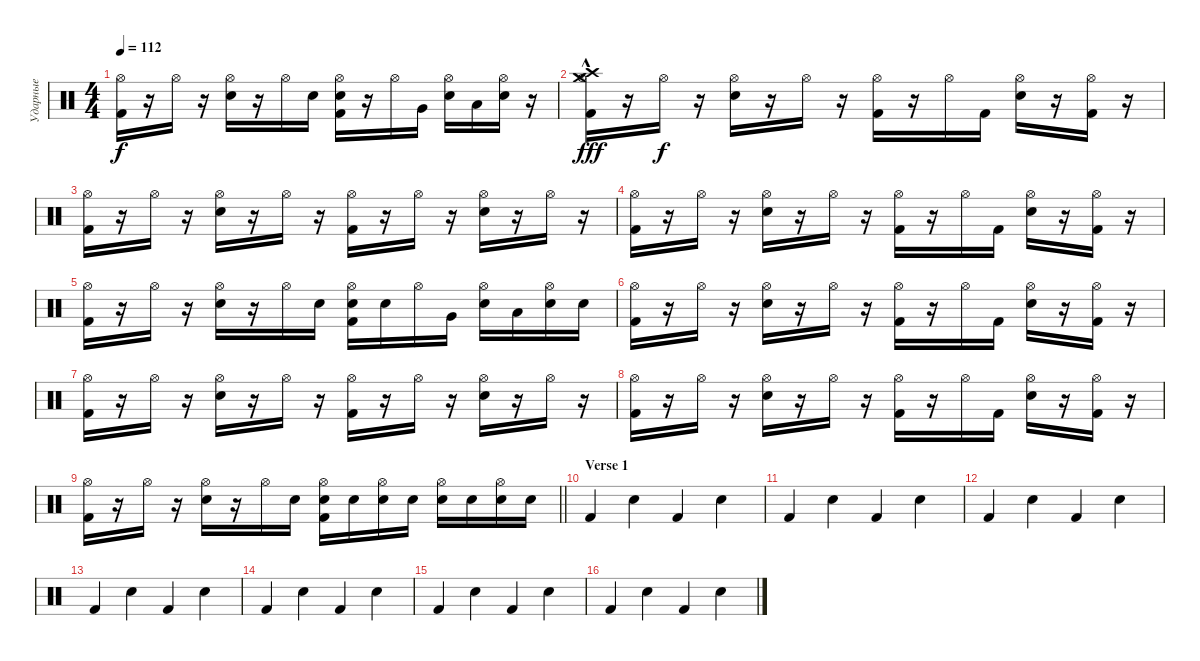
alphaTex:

\track ("Ударные" "Ударные") {instrument percussion}
\staff {score}
\articulation defaults
\ts (4 4)
\tempo 112
\clef neutral
\ks c
("Hi-Hat (open)" "Kick (hit) 2").16{dy f} r.16 "Hi-Hat (open)".16 r.16 ("Hi-Hat (open)" "Snare (hit) 2").16 r.16 "Hi-Hat (open)".16 "Snare (hit) 2".16 ("Hi-Hat (open)" "Electric Snare (hit)" "Kick (hit) 2").16 r.16 "Hi-Hat (open)".16 "Very Low Tom (hit)".16 ("Hi-Hat (open)" "Snare (hit) 2").16 "Low Floor Tom (hit)".16 ("Hi-Hat (open)" "Electric Snare (hit)").16 r.16 |
("Crash high (hit)"{hac} "Crash medium (hit)"{hac} "Hi-Hat (open)" "Kick (hit) 2").16{dy fff} r.16 "Hi-Hat (open)".16{dy f} r.16 ("Hi-Hat (open)" "Snare (hit) 2").16 r.16 "Hi-Hat (open)".16 r.16 ("Hi-Hat (open)" "Kick (hit) 2").16 r.16 "Hi-Hat (open)".16 "Kick (hit) 2".16 ("Hi-Hat (open)" "Snare (hit) 2").16 r.16 ("Hi-Hat (open)" "Kick (hit) 2").16 r.16 |
("Hi-Hat (open)" "Kick (hit) 2").16 r.16 "Hi-Hat (open)".16 r.16 ("Hi-Hat (open)" "Snare (hit) 2").16 r.16 "Hi-Hat (open)".16 r.16 ("Hi-Hat (open)" "Kick (hit) 2").16 r.16 "Hi-Hat (open)".16 r.16 ("Hi-Hat (open)" "Snare (hit) 2").16 r.16 "Hi-Hat (open)".16 r.16 |
("Hi-Hat (open)" "Kick (hit) 2").16 r.16 "Hi-Hat (open)".16 r.16 ("Hi-Hat (open)" "Snare (hit) 2").16 r.16 "Hi-Hat (open)".16 r.16 ("Hi-Hat (open)" "Kick (hit) 2").16 r.16 "Hi-Hat (open)".16 "Kick (hit) 2".16 ("Hi-Hat (open)" "Snare (hit) 2").16 r.16 ("Hi-Hat (open)" "Kick (hit) 2").16 r.16 |
("Hi-Hat (open)" "Kick (hit) 2").16 r.16 "Hi-Hat (open)".16 r.16 ("Hi-Hat (open)" "Snare (hit) 2").16 r.16 "Hi-Hat (open)".16 "Snare (hit) 2".16 ("Hi-Hat (open)" "Electric Snare (hit)" "Kick (hit) 2").16 "Snare (hit) 2".16 "Hi-Hat (open)".16 "Very Low Tom (hit)".16 ("Hi-Hat (open)" "Snare (hit) 2").16 "Low Floor Tom (hit)".16 ("Hi-Hat (open)" "Electric Snare (hit)").16 "Snare (hit) 2".16 |
("Hi-Hat (open)" "Kick (hit) 2").16 r.16 "Hi-Hat (open)".16 r.16 ("Hi-Hat (open)" "Snare (hit) 2").16 r.16 "Hi-Hat (open)".16 r.16 ("Hi-Hat (open)" "Kick (hit) 2").16 r.16 "Hi-Hat (open)".16 "Kick (hit) 2".16 ("Hi-Hat (open)" "Snare (hit) 2").16 r.16 ("Hi-Hat (open)" "Kick (hit) 2").16 r.16 |
("Hi-Hat (open)" "Kick (hit) 2").16 r.16 "Hi-Hat (open)".16 r.16 ("Hi-Hat (open)" "Snare (hit) 2").16 r.16 "Hi-Hat (open)".16 r.16 ("Hi-Hat (open)" "Kick (hit) 2").16 r.16 "Hi-Hat (open)".16 r.16 ("Hi-Hat (open)" "Snare (hit) 2").16 r.16 "Hi-Hat (open)".16 r.16 |
("Hi-Hat (open)" "Kick (hit) 2").16 r.16 "Hi-Hat (open)".16 r.16 ("Hi-Hat (open)" "Snare (hit) 2").16 r.16 "Hi-Hat (open)".16 r.16 ("Hi-Hat (open)" "Kick (hit) 2").16 r.16 "Hi-Hat (open)".16 "Kick (hit) 2".16 ("Hi-Hat (open)" "Snare (hit) 2").16 r.16 ("Hi-Hat (open)" "Kick (hit) 2").16 r.16 |
\barLineRight lightlight
("Hi-Hat (open)" "Kick (hit) 2").16 r.16 "Hi-Hat (open)".16 r.16 ("Hi-Hat (open)" "Snare (hit) 2").16 r.16 "Hi-Hat (open)".16 "Snare (hit) 2".16 ("Hi-Hat (open)" "Electric Snare (hit)" "Kick (hit) 2").16 "Snare (hit) 2".16 ("Hi-Hat (open)" "Snare (hit) 2").16 "Snare (hit) 2".16 ("Hi-Hat (open)" "Snare (hit) 2").16 "Snare (hit) 2".16 ("Hi-Hat (open)" "Electric Snare (hit)").16 "Snare (hit) 2".16 |
\section ("" "Verse 1")
"Kick (hit) 2".4 "Snare (hit) 2".4 "Kick (hit) 2".4 "Snare (hit) 2".4 |
"Kick (hit) 2".4 "Snare (hit) 2".4 "Kick (hit) 2".4 "Snare (hit) 2".4 |
"Kick (hit) 2".4 "Snare (hit) 2".4 "Kick (hit) 2".4 "Snare (hit) 2".4 |
"Kick (hit) 2".4 "Snare (hit) 2".4 "Kick (hit) 2".4 "Snare (hit) 2".4 |
"Kick (hit) 2".4 "Snare (hit) 2".4 "Kick (hit) 2".4 "Snare (hit) 2".4 |
"Kick (hit) 2".4 "Snare (hit) 2".4 "Kick (hit) 2".4 "Snare (hit) 2".4 |
"Kick (hit) 2".4 "Snare (hit) 2".4 "Kick (hit) 2".4 "Snare (hit) 2".4
